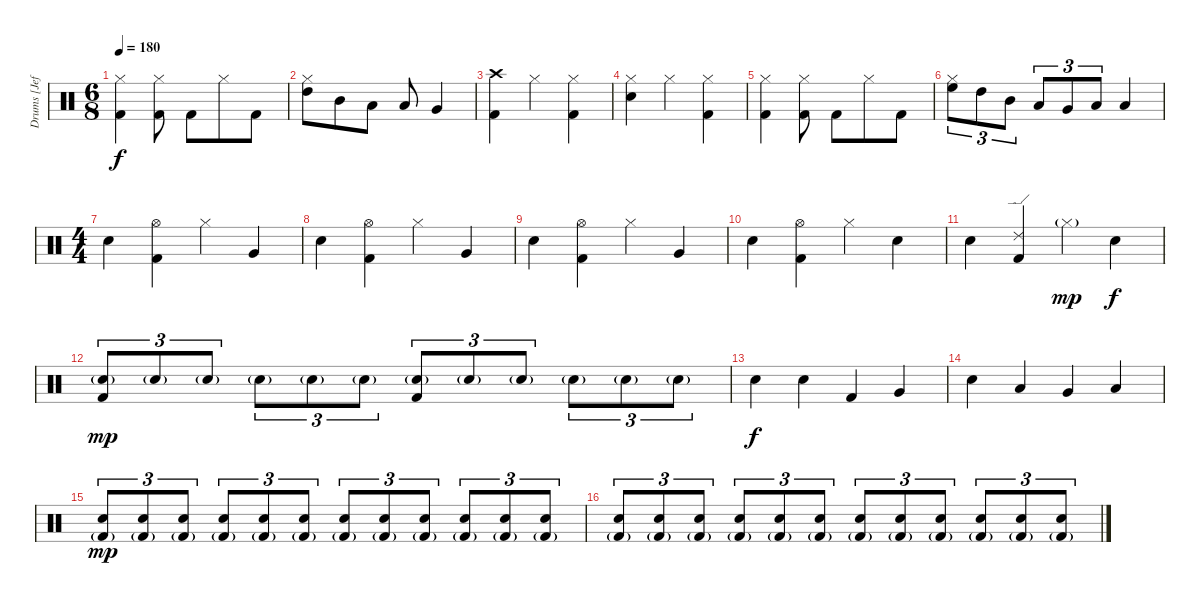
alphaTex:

\track ("Drums [Jeff]" "Drums [Jef") {instrument percussion}
\staff {score}
\articulation defaults
\ts (6 8)
\tempo 180
\clef neutral
\ks c
("Hi-Hat (closed)" "Kick (hit) 2").4{dy f} ("Hi-Hat (closed)" "Kick (hit) 2").8 "Kick (hit) 2".8 "Hi-Hat (closed)".8 "Kick (hit) 2".8 |
("Hi-Hat (closed)" "High Tom (hit)").8 "Mid Tom (hit)".8 "Low Tom (hit)".8 "Low Tom (hit)".8 "Very Low Tom (hit)".4 |
("Crash high (hit)" "Kick (hit) 2").4 "Hi-Hat (closed)".4 ("Hi-Hat (closed)" "Kick (hit) 2").4 |
("Hi-Hat (closed)" "Electric Snare (hit)").4 "Hi-Hat (closed)".4 ("Hi-Hat (closed)" "Kick (hit) 2").4 |
("Hi-Hat (closed)" "Kick (hit) 2").4 ("Hi-Hat (closed)" "Kick (hit) 2").8 "Kick (hit) 2".8 "Hi-Hat (closed)".8 "Kick (hit) 2".8 |
("Hi-Hat (closed)" "High Floor Tom (hit)").8{tu (3 2)} "High Tom (hit)".8{tu (3 2)} "Mid Tom (hit)".8{tu (3 2)} "Low Tom (hit)".8{tu (3 2)} "Very Low Tom (hit)".8{tu (3 2)} "Low Floor Tom (hit)".8{tu (3 2)} "Low Floor Tom (hit)".4 |
\ts (4 4)
"Electric Snare (hit)".4 ("Hi-Hat (open)" "Kick (hit) 2").4 "Hi-Hat (closed)".4 "Very Low Tom (hit)".4 |
"Electric Snare (hit)".4 ("Hi-Hat (open)" "Kick (hit) 2").4 "Hi-Hat (closed)".4 "Very Low Tom (hit)".4 |
"Electric Snare (hit)".4 ("Hi-Hat (open)" "Kick (hit) 2").4 "Hi-Hat (closed)".4 "Very Low Tom (hit)".4 |
"Electric Snare (hit)".4 ("Hi-Hat (open)" "Kick (hit) 2").4 "Hi-Hat (closed)".4 "Electric Snare (hit)".4 |
"Electric Snare (hit)".4 ("Ride (edge) 2" "Kick (hit) 2").4 "Hi-Hat (closed)"{g}.4{dy mp} "Electric Snare (hit)".4{dy f} |
("Electric Snare (hit)"{g} "Kick (hit) 2").8{tu (3 2) dy mp} "Electric Snare (hit)"{g}.8{tu (3 2)} "Electric Snare (hit)"{g}.8{tu (3 2)} "Electric Snare (hit)"{g}.8{tu (3 2)} "Electric Snare (hit)"{g}.8{tu (3 2)} "Electric Snare (hit)"{g}.8{tu (3 2)} ("Electric Snare (hit)"{g} "Kick (hit) 2").8{tu (3 2)} "Electric Snare (hit)"{g}.8{tu (3 2)} "Electric Snare (hit)"{g}.8{tu (3 2)} "Electric Snare (hit)"{g}.8{tu (3 2)} "Electric Snare (hit)"{g}.8{tu (3 2)} "Electric Snare (hit)"{g}.8{tu (3 2)} |
"Electric Snare (hit)".4{dy f} "Electric Snare (hit)".4 "Kick (hit) 2".4 "Very Low Tom (hit)".4 |
"Electric Snare (hit)".4 "Low Tom (hit)".4 "Very Low Tom (hit)".4 "Low Floor Tom (hit)".4 |
("Electric Snare (hit)" "Kick (hit) 2"{g}).8{tu (3 2) dy mp volume 7} ("Electric Snare (hit)" "Kick (hit) 2"{g}).8{tu (3 2) volume 12} ("Electric Snare (hit)" "Kick (hit) 2"{g}).8{tu (3 2)} ("Electric Snare (hit)" "Kick (hit) 2"{g}).8{tu (3 2)} ("Electric Snare (hit)" "Kick (hit) 2"{g}).8{tu (3 2)} ("Electric Snare (hit)" "Kick (hit) 2"{g}).8{tu (3 2)} ("Electric Snare (hit)" "Kick (hit) 2"{g}).8{tu (3 2)} ("Electric Snare (hit)" "Kick (hit) 2"{g}).8{tu (3 2)} ("Electric Snare (hit)" "Kick (hit) 2"{g}).8{tu (3 2)} ("Electric Snare (hit)" "Kick (hit) 2"{g}).8{tu (3 2)} ("Electric Snare (hit)" "Kick (hit) 2"{g}).8{tu (3 2)} ("Electric Snare (hit)" "Kick (hit) 2"{g}).8{tu (3 2)} |
("Electric Snare (hit)" "Kick (hit) 2"{g}).8{tu (3 2)} ("Electric Snare (hit)" "Kick (hit) 2"{g}).8{tu (3 2)} ("Electric Snare (hit)" "Kick (hit) 2"{g}).8{tu (3 2)} ("Electric Snare (hit)" "Kick (hit) 2"{g}).8{tu (3 2)} ("Electric Snare (hit)" "Kick (hit) 2"{g}).8{tu (3 2)} ("Electric Snare (hit)" "Kick (hit) 2"{g}).8{tu (3 2)} ("Electric Snare (hit)" "Kick (hit) 2"{g}).8{tu (3 2)} ("Electric Snare (hit)" "Kick (hit) 2"{g}).8{tu (3 2)} ("Electric Snare (hit)" "Kick (hit) 2"{g}).8{tu (3 2)} ("Electric Snare (hit)" "Kick (hit) 2"{g}).8{tu (3 2)} ("Electric Snare (hit)" "Kick (hit) 2"{g}).8{tu (3 2)} ("Electric Snare (hit)" "Kick (hit) 2"{g}).8{tu (3 2)}
